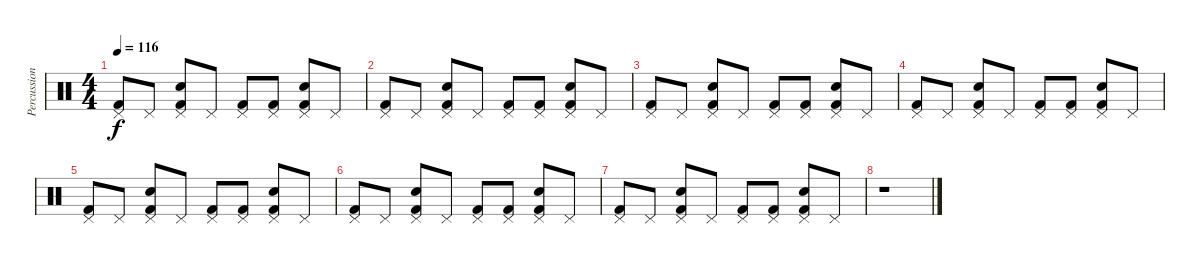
\track ("Percussion" "Percussion") {instrument percussion}
\staff {score}
\articulation defaults
\ts (4 4)
\tempo 116
\clef neutral
\ks c
("Pedal Hi-Hat (hit)" "Kick (hit) 2").8{dy f} "Pedal Hi-Hat (hit)".8 ("Pedal Hi-Hat (hit)" "Snare (hit) 2" "Kick (hit) 2").8 "Pedal Hi-Hat (hit)".8 ("Pedal Hi-Hat (hit)" "Kick (hit) 2").8 ("Pedal Hi-Hat (hit)" "Kick (hit) 2").8 ("Pedal Hi-Hat (hit)" "Snare (hit) 2" "Kick (hit) 2").8 "Pedal Hi-Hat (hit)".8 |
("Pedal Hi-Hat (hit)" "Kick (hit) 2").8 "Pedal Hi-Hat (hit)".8 ("Pedal Hi-Hat (hit)" "Snare (hit) 2" "Kick (hit) 2").8 "Pedal Hi-Hat (hit)".8 ("Pedal Hi-Hat (hit)" "Kick (hit) 2").8 ("Pedal Hi-Hat (hit)" "Kick (hit) 2").8 ("Pedal Hi-Hat (hit)" "Snare (hit) 2" "Kick (hit) 2").8 "Pedal Hi-Hat (hit)".8 |
("Pedal Hi-Hat (hit)" "Kick (hit) 2").8 "Pedal Hi-Hat (hit)".8 ("Pedal Hi-Hat (hit)" "Snare (hit) 2" "Kick (hit) 2").8 "Pedal Hi-Hat (hit)".8 ("Pedal Hi-Hat (hit)" "Kick (hit) 2").8 ("Pedal Hi-Hat (hit)" "Kick (hit) 2").8 ("Pedal Hi-Hat (hit)" "Snare (hit) 2" "Kick (hit) 2").8 "Pedal Hi-Hat (hit)".8 |
("Pedal Hi-Hat (hit)" "Kick (hit) 2").8 "Pedal Hi-Hat (hit)".8 ("Pedal Hi-Hat (hit)" "Snare (hit) 2" "Kick (hit) 2").8 "Pedal Hi-Hat (hit)".8 ("Pedal Hi-Hat (hit)" "Kick (hit) 2").8 ("Pedal Hi-Hat (hit)" "Kick (hit) 2").8 ("Pedal Hi-Hat (hit)" "Snare (hit) 2" "Kick (hit) 2").8 "Pedal Hi-Hat (hit)".8 |
("Pedal Hi-Hat (hit)" "Kick (hit) 2").8 "Pedal Hi-Hat (hit)".8 ("Pedal Hi-Hat (hit)" "Snare (hit) 2" "Kick (hit) 2").8 "Pedal Hi-Hat (hit)".8 ("Pedal Hi-Hat (hit)" "Kick (hit) 2").8 ("Pedal Hi-Hat (hit)" "Kick (hit) 2").8 ("Pedal Hi-Hat (hit)" "Snare (hit) 2" "Kick (hit) 2").8 "Pedal Hi-Hat (hit)".8 |
("Pedal Hi-Hat (hit)" "Kick (hit) 2").8 "Pedal Hi-Hat (hit)".8 ("Pedal Hi-Hat (hit)" "Snare (hit) 2" "Kick (hit) 2").8 "Pedal Hi-Hat (hit)".8 ("Pedal Hi-Hat (hit)" "Kick (hit) 2").8 ("Pedal Hi-Hat (hit)" "Kick (hit) 2").8 ("Pedal Hi-Hat (hit)" "Snare (hit) 2" "Kick (hit) 2").8 "Pedal Hi-Hat (hit)".8 |
("Pedal Hi-Hat (hit)" "Kick (hit) 2").8 "Pedal Hi-Hat (hit)".8 ("Pedal Hi-Hat (hit)" "Snare (hit) 2" "Kick (hit) 2").8 "Pedal Hi-Hat (hit)".8 ("Pedal Hi-Hat (hit)" "Kick (hit) 2").8 ("Pedal Hi-Hat (hit)" "Kick (hit) 2").8 ("Pedal Hi-Hat (hit)" "Snare (hit) 2" "Kick (hit) 2").8 "Pedal Hi-Hat (hit)".8 |
r.1
